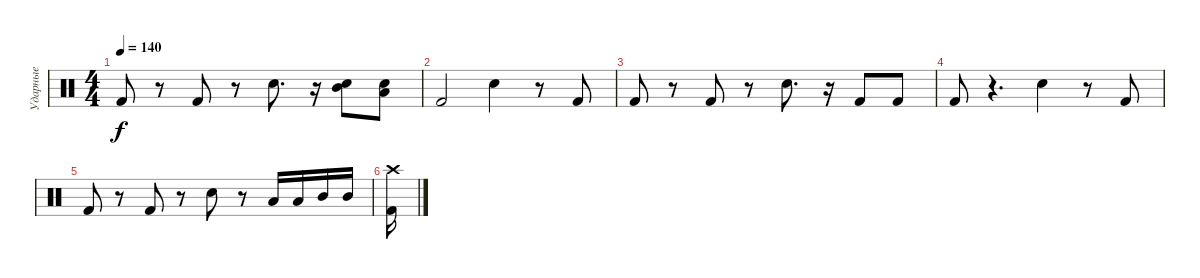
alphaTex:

\track ("Ударные" "Ударные") {instrument percussion}
\staff {score}
\articulation defaults
\ts (4 4)
\tempo 140
\clef neutral
\ks c "Kick (hit) 2".8{dy f}
r.8 "Kick (hit) 2".8 r.8 "Electric Snare (hit)".8{d} r.16 ("Electric Snare (hit)" "Mid Tom (hit)").8 ("Electric Snare (hit)" "Low Tom (hit)").8 |
"Kick (hit) 2".2 "Electric Snare (hit)".4 r.8 "Kick (hit) 2".8 |
"Kick (hit) 2".8 r.8 "Kick (hit) 2".8 r.8 "Electric Snare (hit)".8{d} r.16 "Kick (hit) 2".8 "Kick (hit) 2".8 |
"Kick (hit) 2".8 r.4{d} "Electric Snare (hit)".4 r.8 "Kick (hit) 2".8 |
"Kick (hit) 2".8 r.8 "Kick (hit) 2".8 r.8 "Electric Snare (hit)".8 r.8 "Low Tom (hit)".16 "Low Tom (hit)".16 "Mid Tom (hit)".16 "Mid Tom (hit)".16 |
("Crash high (hit)" "Kick (hit) 2").16
